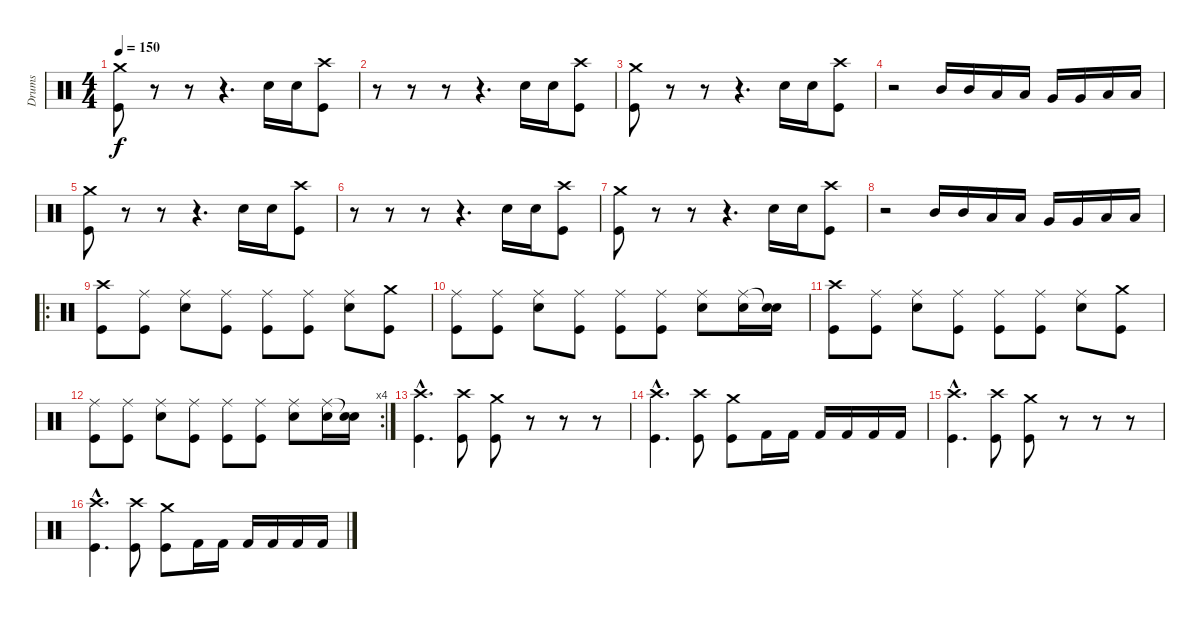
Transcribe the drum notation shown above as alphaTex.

\track ("Drums" "Drums") {instrument percussion}
\staff {score}
\articulation defaults
\ts (4 4)
\tempo 150
\clef neutral
\ks c
("Crash medium (hit)" "Kick (hit)").8{dy f} r.8 r.8 r.4{d} "Electric Snare (hit)".16 "Electric Snare (hit)".16 ("Crash high (hit)" "Kick (hit)").8 |
r.8 r.8 r.8 r.4{d} "Electric Snare (hit)".16 "Electric Snare (hit)".16 ("Crash high (hit)" "Kick (hit)").8 |
("Crash medium (hit)" "Kick (hit)").8 r.8 r.8 r.4{d} "Electric Snare (hit)".16 "Electric Snare (hit)".16 ("Crash high (hit)" "Kick (hit)").8 |
r.2 "Mid Tom (hit)".16 "Mid Tom (hit)".16 "Low Tom (hit)".16 "Low Tom (hit)".16 "Very Low Tom (hit)".16 "Very Low Tom (hit)".16 "Low Tom (hit)".16 "Low Tom (hit)".16 |
("Crash medium (hit)" "Kick (hit)").8 r.8 r.8 r.4{d} "Electric Snare (hit)".16 "Electric Snare (hit)".16 ("Crash high (hit)" "Kick (hit)").8 |
r.8 r.8 r.8 r.4{d} "Electric Snare (hit)".16 "Electric Snare (hit)".16 ("Crash high (hit)" "Kick (hit)").8 |
("Crash medium (hit)" "Kick (hit)").8 r.8 r.8 r.4{d} "Electric Snare (hit)".16 "Electric Snare (hit)".16 ("Crash high (hit)" "Kick (hit)").8 |
r.2 "Mid Tom (hit)".16 "Mid Tom (hit)".16 "Low Tom (hit)".16 "Low Tom (hit)".16 "Very Low Tom (hit)".16 "Very Low Tom (hit)".16 "Low Tom (hit)".16 "Low Tom (hit)".16 |
\ro
("Crash high (hit)" "Kick (hit)").8 ("Ride (middle)" "Kick (hit)").8 ("Ride (middle)" "Snare (hit) 2").8 ("Ride (middle)" "Kick (hit)").8 ("Ride (middle)" "Kick (hit)").8 ("Ride (middle)" "Kick (hit)").8 ("Ride (middle)" "Snare (hit) 2").8 ("Crash medium (hit)" "Kick (hit)").8 |
("Ride (middle)" "Kick (hit)").8 ("Ride (middle)" "Kick (hit)").8 ("Ride (middle)" "Snare (hit) 2").8 ("Ride (middle)" "Kick (hit)").8 ("Ride (middle)" "Kick (hit)").8 ("Ride (middle)" "Kick (hit)").8 ("Ride (middle)" "Snare (hit) 2").8 ("Ride (middle)" "Electric Snare (hit)").16 ("Snare (hit)"{t} "Electric Snare (hit)").16 |
("Crash high (hit)" "Kick (hit)").8 ("Ride (middle)" "Kick (hit)").8 ("Ride (middle)" "Snare (hit) 2").8 ("Ride (middle)" "Kick (hit)").8 ("Ride (middle)" "Kick (hit)").8 ("Ride (middle)" "Kick (hit)").8 ("Ride (middle)" "Snare (hit) 2").8 ("Crash medium (hit)" "Kick (hit)").8 |
\rc 4
("Ride (middle)" "Kick (hit)").8 ("Ride (middle)" "Kick (hit)").8 ("Ride (middle)" "Snare (hit) 2").8 ("Ride (middle)" "Kick (hit)").8 ("Ride (middle)" "Kick (hit)").8 ("Ride (middle)" "Kick (hit)").8 ("Ride (middle)" "Snare (hit) 2").8 ("Ride (middle)" "Electric Snare (hit)").16 ("Snare (hit)"{t} "Electric Snare (hit)").16 |
("Crash high (hit)"{hac} "Kick (hit)"{hac}).4{d} ("Crash high (hit)" "Kick (hit)").8 ("Crash medium (hit)" "Kick (hit)").8 r.8 r.8 r.8 |
("Crash high (hit)"{hac} "Kick (hit)"{hac}).4{d} ("Crash high (hit)" "Kick (hit)").8 ("Crash medium (hit)" "Kick (hit)").8 "Kick (hit) 2".16 "Kick (hit) 2".16 "Kick (hit) 2".16 "Kick (hit) 2".16 "Kick (hit) 2".16 "Kick (hit) 2".16 |
("Crash high (hit)"{hac} "Kick (hit)"{hac}).4{d} ("Crash high (hit)" "Kick (hit)").8 ("Crash medium (hit)" "Kick (hit)").8 r.8 r.8 r.8 |
("Crash high (hit)"{hac} "Kick (hit)"{hac}).4{d} ("Crash high (hit)" "Kick (hit)").8 ("Crash medium (hit)" "Kick (hit)").8 "Kick (hit) 2".16 "Kick (hit) 2".16 "Kick (hit) 2".16 "Kick (hit) 2".16 "Kick (hit) 2".16 "Kick (hit) 2".16
